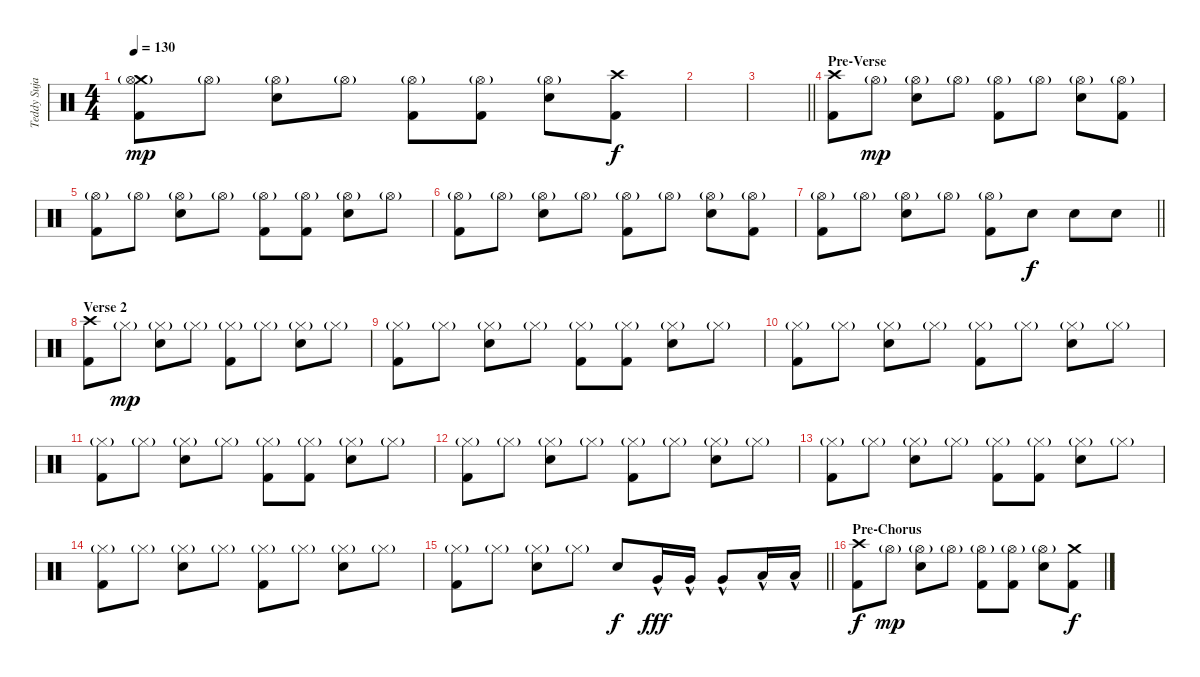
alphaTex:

\track ("Teddy Sujaya" "Teddy Suja") {instrument percussion}
\staff {score}
\articulation defaults
\ts (4 4)
\tempo 130
\clef neutral
\ks c
("Crash medium (hit)" "Hi-Hat (open)"{g} "Kick (hit) 2").8{dy mp} "Hi-Hat (open)"{g}.8 ("Hi-Hat (open)"{g} "Electric Snare (hit)").8 "Hi-Hat (open)"{g}.8 ("Hi-Hat (open)"{g} "Kick (hit) 2").8 ("Hi-Hat (open)"{g} "Kick (hit) 2").8 ("Hi-Hat (open)"{g} "Electric Snare (hit)").8 ("Crash high (hit)" "Kick (hit) 2").8{dy f} |
|
\barLineRight lightlight
|
\section ("" "Pre-Verse")
("Crash high (hit)" "Kick (hit) 2").8{volume 16} "Hi-Hat (open)"{g}.8{dy mp} ("Hi-Hat (open)"{g} "Electric Snare (hit)").8 "Hi-Hat (open)"{g}.8 ("Hi-Hat (open)"{g} "Kick (hit) 2").8 "Hi-Hat (open)"{g}.8 ("Hi-Hat (open)"{g} "Electric Snare (hit)").8 ("Hi-Hat (open)"{g} "Kick (hit) 2").8 |
("Hi-Hat (open)"{g} "Kick (hit) 2").8 "Hi-Hat (open)"{g}.8 ("Hi-Hat (open)"{g} "Electric Snare (hit)").8 "Hi-Hat (open)"{g}.8 ("Hi-Hat (open)"{g} "Kick (hit) 2").8 ("Hi-Hat (open)"{g} "Kick (hit) 2").8 ("Hi-Hat (open)"{g} "Electric Snare (hit)").8 "Hi-Hat (open)"{g}.8 |
("Hi-Hat (open)"{g} "Kick (hit) 2").8 "Hi-Hat (open)"{g}.8 ("Hi-Hat (open)"{g} "Electric Snare (hit)").8 "Hi-Hat (open)"{g}.8 ("Hi-Hat (open)"{g} "Kick (hit) 2").8 "Hi-Hat (open)"{g}.8 ("Hi-Hat (open)"{g} "Electric Snare (hit)").8 ("Hi-Hat (open)"{g} "Kick (hit) 2").8 |
\barLineRight lightlight
("Hi-Hat (open)"{g} "Kick (hit) 2").8 "Hi-Hat (open)"{g}.8 ("Hi-Hat (open)"{g} "Electric Snare (hit)").8 "Hi-Hat (open)"{g}.8 ("Hi-Hat (open)"{g} "Kick (hit) 2").8 "Electric Snare (hit)".8{dy f} "Electric Snare (hit)".8 "Electric Snare (hit)".8 |
\section ("" "Verse 2")
("Crash high (hit)" "Kick (hit) 2").8 "Hi-Hat (closed)"{g}.8{dy mp} ("Hi-Hat (closed)"{g} "Electric Snare (hit)").8 "Hi-Hat (closed)"{g}.8 ("Hi-Hat (closed)"{g} "Kick (hit) 2").8 "Hi-Hat (closed)"{g}.8 ("Hi-Hat (closed)"{g} "Electric Snare (hit)").8 "Hi-Hat (closed)"{g}.8 |
("Hi-Hat (closed)"{g} "Kick (hit) 2").8 "Hi-Hat (closed)"{g}.8 ("Hi-Hat (closed)"{g} "Electric Snare (hit)").8 "Hi-Hat (closed)"{g}.8 ("Hi-Hat (closed)"{g} "Kick (hit) 2").8 ("Hi-Hat (closed)"{g} "Kick (hit) 2").8 ("Hi-Hat (closed)"{g} "Electric Snare (hit)").8 "Hi-Hat (closed)"{g}.8 |
("Hi-Hat (closed)"{g} "Kick (hit) 2").8 "Hi-Hat (closed)"{g}.8 ("Hi-Hat (closed)"{g} "Electric Snare (hit)").8 "Hi-Hat (closed)"{g}.8 ("Hi-Hat (closed)"{g} "Kick (hit) 2").8 "Hi-Hat (closed)"{g}.8 ("Hi-Hat (closed)"{g} "Electric Snare (hit)").8 "Hi-Hat (closed)"{g}.8 |
("Hi-Hat (closed)"{g} "Kick (hit) 2").8 "Hi-Hat (closed)"{g}.8 ("Hi-Hat (closed)"{g} "Electric Snare (hit)").8 "Hi-Hat (closed)"{g}.8 ("Hi-Hat (closed)"{g} "Kick (hit) 2").8 ("Hi-Hat (closed)"{g} "Kick (hit) 2").8 ("Hi-Hat (closed)"{g} "Electric Snare (hit)").8 "Hi-Hat (closed)"{g}.8 |
("Hi-Hat (closed)"{g} "Kick (hit) 2").8 "Hi-Hat (closed)"{g}.8 ("Hi-Hat (closed)"{g} "Electric Snare (hit)").8 "Hi-Hat (closed)"{g}.8 ("Hi-Hat (closed)"{g} "Kick (hit) 2").8 "Hi-Hat (closed)"{g}.8 ("Hi-Hat (closed)"{g} "Electric Snare (hit)").8 "Hi-Hat (closed)"{g}.8 |
("Hi-Hat (closed)"{g} "Kick (hit) 2").8 "Hi-Hat (closed)"{g}.8 ("Hi-Hat (closed)"{g} "Electric Snare (hit)").8 "Hi-Hat (closed)"{g}.8 ("Hi-Hat (closed)"{g} "Kick (hit) 2").8 ("Hi-Hat (closed)"{g} "Kick (hit) 2").8 ("Hi-Hat (closed)"{g} "Electric Snare (hit)").8 "Hi-Hat (closed)"{g}.8 |
("Hi-Hat (closed)"{g} "Kick (hit) 2").8 "Hi-Hat (closed)"{g}.8 ("Hi-Hat (closed)"{g} "Electric Snare (hit)").8 "Hi-Hat (closed)"{g}.8 ("Hi-Hat (closed)"{g} "Kick (hit) 2").8 "Hi-Hat (closed)"{g}.8 ("Hi-Hat (closed)"{g} "Electric Snare (hit)").8 "Hi-Hat (closed)"{g}.8 |
\barLineRight lightlight
("Hi-Hat (closed)"{g} "Kick (hit) 2").8 "Hi-Hat (closed)"{g}.8 ("Hi-Hat (closed)"{g} "Electric Snare (hit)").8 "Hi-Hat (closed)"{g}.8 "Electric Snare (hit)".8{dy f} "Very Low Tom (hit)"{hac}.16{dy fff} "Very Low Tom (hit)"{hac}.16 "Very Low Tom (hit)"{hac}.8 "Low Floor Tom (hit)"{hac}.16 "Low Floor Tom (hit)"{hac}.16 |
\section ("" "Pre-Chorus")
("Crash high (hit)" "Kick (hit) 2").8{dy f} "Hi-Hat (open)"{g}.8{dy mp} ("Hi-Hat (open)"{g} "Electric Snare (hit)").8 "Hi-Hat (open)"{g}.8 ("Hi-Hat (open)"{g} "Kick (hit) 2").8 ("Hi-Hat (open)"{g} "Kick (hit) 2").8 ("Hi-Hat (open)"{g} "Electric Snare (hit)").8 ("Crash medium (hit)" "Kick (hit) 2").8{dy f}
